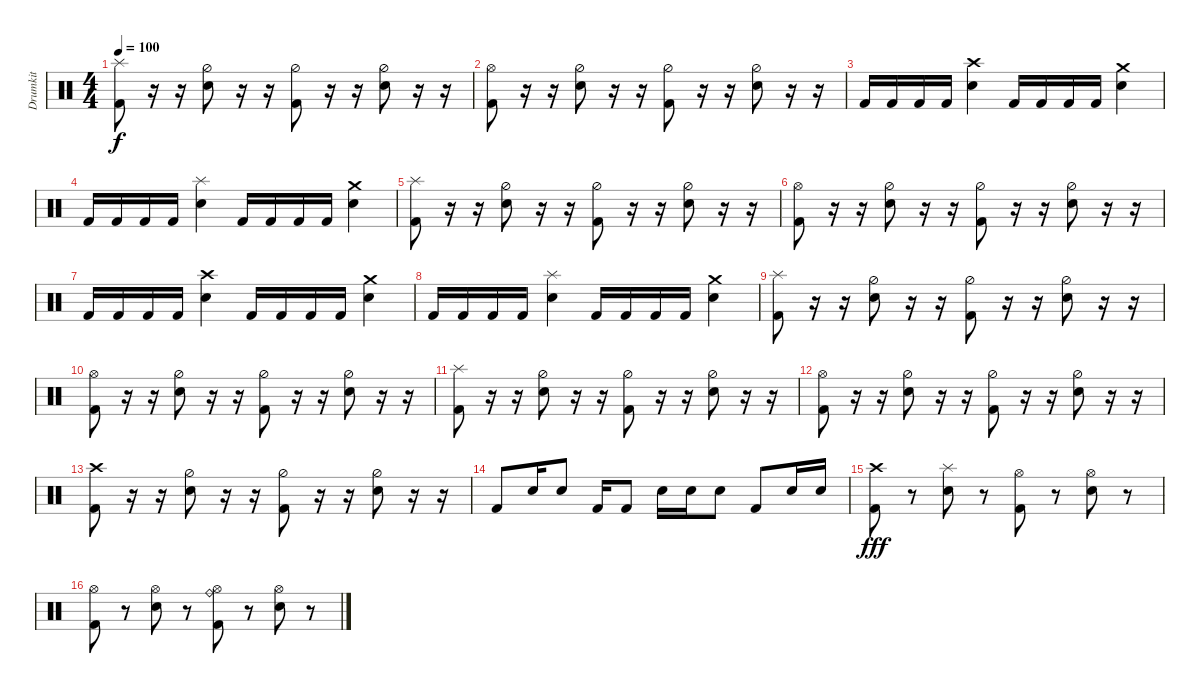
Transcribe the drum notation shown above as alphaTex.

\track ("Drumkit" "Drumkit") {instrument percussion}
\staff {score}
\articulation defaults
\ts (4 4)
\tempo 100
\clef neutral
\ks c
("Kick (hit) 2" "Splash (hit)").8{dy f} r.16 r.16 ("Hi-Hat (half)" "Snare (hit) 2").8 r.16 r.16 ("Kick (hit) 2" "Hi-Hat (half)").8 r.16 r.16 ("Snare (hit) 2" "Hi-Hat (half)").8 r.16 r.16 |
("Kick (hit) 2" "Hi-Hat (open)").8 r.16 r.16 ("Hi-Hat (half)" "Snare (hit) 2").8 r.16 r.16 ("Kick (hit) 2" "Hi-Hat (half)").8 r.16 r.16 ("Snare (hit) 2" "Hi-Hat (half)").8 r.16 r.16 |
"Kick (hit) 2".16 "Kick (hit) 2".16 "Kick (hit) 2".16 "Kick (hit) 2".16 ("Snare (hit) 2" "Crash high (hit)").4 "Kick (hit) 2".16 "Kick (hit) 2".16 "Kick (hit) 2".16 "Kick (hit) 2".16 ("Snare (hit) 2" "Crash medium (hit)").4 |
"Kick (hit) 2".16 "Kick (hit) 2".16 "Kick (hit) 2".16 "Kick (hit) 2".16 ("Snare (hit) 2" "Splash (hit)").4 "Kick (hit) 2".16 "Kick (hit) 2".16 "Kick (hit) 2".16 "Kick (hit) 2".16 ("Snare (hit) 2" "Crash medium (hit)").4 |
("Kick (hit) 2" "Splash (hit)").8 r.16 r.16 ("Hi-Hat (half)" "Snare (hit) 2").8 r.16 r.16 ("Kick (hit) 2" "Hi-Hat (half)").8 r.16 r.16 ("Snare (hit) 2" "Hi-Hat (half)").8 r.16 r.16 |
("Kick (hit) 2" "Hi-Hat (open)").8 r.16 r.16 ("Hi-Hat (half)" "Snare (hit) 2").8 r.16 r.16 ("Kick (hit) 2" "Hi-Hat (half)").8 r.16 r.16 ("Snare (hit) 2" "Hi-Hat (half)").8 r.16 r.16 |
"Kick (hit) 2".16 "Kick (hit) 2".16 "Kick (hit) 2".16 "Kick (hit) 2".16 ("Snare (hit) 2" "Crash high (hit)").4 "Kick (hit) 2".16 "Kick (hit) 2".16 "Kick (hit) 2".16 "Kick (hit) 2".16 ("Snare (hit) 2" "Crash medium (hit)").4 |
"Kick (hit) 2".16 "Kick (hit) 2".16 "Kick (hit) 2".16 "Kick (hit) 2".16 ("Snare (hit) 2" "Splash (hit)").4 "Kick (hit) 2".16 "Kick (hit) 2".16 "Kick (hit) 2".16 "Kick (hit) 2".16 ("Snare (hit) 2" "Crash medium (hit)").4 |
("Kick (hit) 2" "Splash (hit)").8 r.16 r.16 ("Hi-Hat (half)" "Snare (hit) 2").8 r.16 r.16 ("Kick (hit) 2" "Hi-Hat (half)").8 r.16 r.16 ("Snare (hit) 2" "Hi-Hat (half)").8 r.16 r.16 |
("Kick (hit) 2" "Hi-Hat (open)").8 r.16 r.16 ("Hi-Hat (half)" "Snare (hit) 2").8 r.16 r.16 ("Kick (hit) 2" "Hi-Hat (half)").8 r.16 r.16 ("Snare (hit) 2" "Hi-Hat (half)").8 r.16 r.16 |
("Kick (hit) 2" "Splash (hit)").8 r.16 r.16 ("Hi-Hat (half)" "Snare (hit) 2").8 r.16 r.16 ("Kick (hit) 2" "Hi-Hat (half)").8 r.16 r.16 ("Snare (hit) 2" "Hi-Hat (half)").8 r.16 r.16 |
("Kick (hit) 2" "Hi-Hat (open)").8 r.16 r.16 ("Hi-Hat (half)" "Snare (hit) 2").8 r.16 r.16 ("Kick (hit) 2" "Hi-Hat (half)").8 r.16 r.16 ("Snare (hit) 2" "Hi-Hat (half)").8 r.16 r.16 |
("Kick (hit) 2" "Crash high (hit)").8 r.16 r.16 ("Hi-Hat (half)" "Snare (hit) 2").8 r.16 r.16 ("Kick (hit) 2" "Hi-Hat (half)").8 r.16 r.16 ("Snare (hit) 2" "Hi-Hat (half)").8 r.16 r.16 |
"Kick (hit) 2".8 "Snare (hit) 2".16 "Snare (hit) 2".8 "Kick (hit) 2".16 "Kick (hit) 2".8 "Snare (hit) 2".16 "Snare (hit) 2".16 "Snare (hit) 2".8 "Kick (hit) 2".8 "Snare (hit) 2".16 "Snare (hit) 2".16 |
("Kick (hit) 2" "Crash high (hit)").8{dy fff} r.8 ("Snare (hit) 2" "Splash (hit)").8 r.8 ("Kick (hit) 2" "Hi-Hat (open)").8 r.8 ("Snare (hit) 2" "Hi-Hat (open)").8 r.8 |
("Kick (hit) 2" "Hi-Hat (open)").8 r.8 ("Snare (hit) 2" "Hi-Hat (open)").8 r.8 ("Kick (hit) 2" "Hi-Hat (open)" "Ride (bell)").8 r.8 ("Hi-Hat (open)" "Snare (hit) 2").8 r.8
